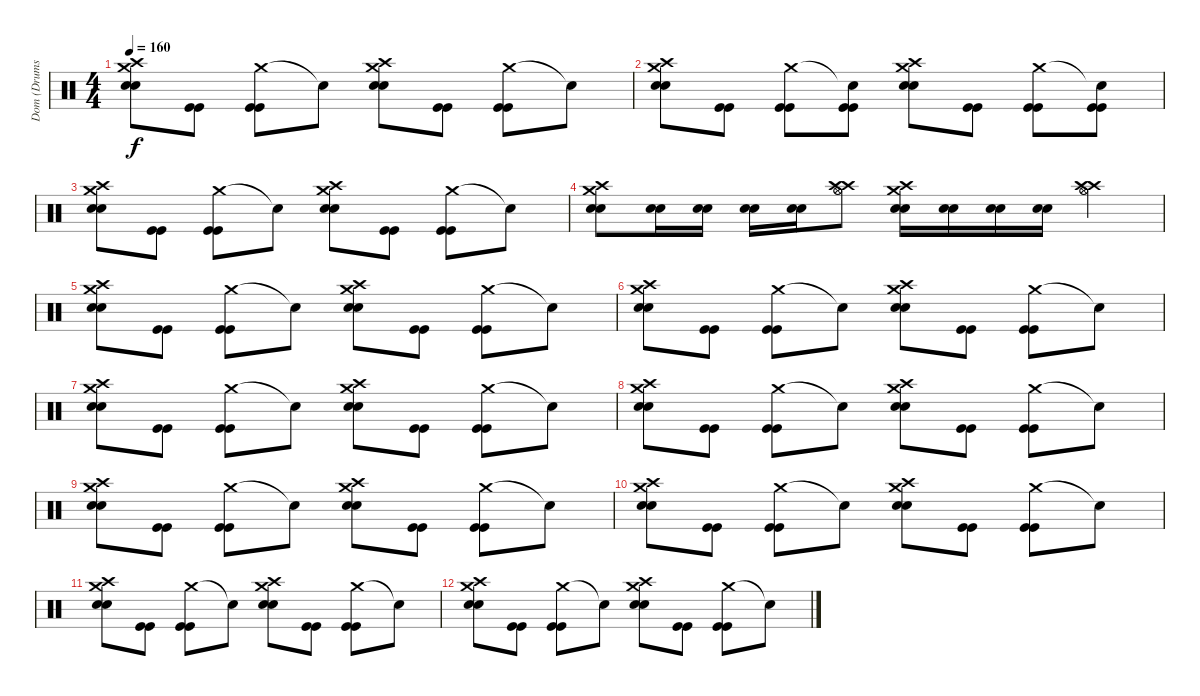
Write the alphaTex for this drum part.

\track ("Dom (Drums)" "Dom (Drums") {instrument percussion}
\staff {score}
\articulation defaults
\ts (4 4)
\tempo 160
\clef neutral
\ks c
("Crash medium (hit)" "Crash high (hit)" "Snare (hit) 2" "Snare (hit) 2").8{dy f} ("Kick (hit)" "Kick (hit)").8 ("Crash medium (hit)" "Kick (hit)" "Kick (hit)").8 "Snare (hit)"{t}.8 ("Crash medium (hit)" "Crash high (hit)" "Snare (hit) 2" "Snare (hit) 2").8 ("Kick (hit)" "Kick (hit)").8 ("Crash medium (hit)" "Kick (hit)" "Kick (hit)").8 "Snare (hit)"{t}.8 |
("Crash medium (hit)" "Crash high (hit)" "Snare (hit) 2" "Snare (hit) 2").8 ("Kick (hit)" "Kick (hit)").8 ("Crash medium (hit)" "Kick (hit)" "Kick (hit)").8 ("Snare (hit)"{t} "Kick (hit)" "Kick (hit)").8 ("Crash medium (hit)" "Crash high (hit)" "Snare (hit) 2" "Snare (hit) 2").8 ("Kick (hit)" "Kick (hit)").8 ("Crash medium (hit)" "Kick (hit)" "Kick (hit)").8 ("Snare (hit)"{t} "Kick (hit)" "Kick (hit)").8 |
("Crash medium (hit)" "Crash high (hit)" "Snare (hit) 2" "Snare (hit) 2").8 ("Kick (hit)" "Kick (hit)").8 ("Crash medium (hit)" "Kick (hit)" "Kick (hit)").8 "Snare (hit)"{t}.8 ("Crash medium (hit)" "Crash high (hit)" "Snare (hit) 2" "Snare (hit) 2").8 ("Kick (hit)" "Kick (hit)").8 ("Crash medium (hit)" "Kick (hit)" "Kick (hit)").8 "Snare (hit)"{t}.8 |
("Crash medium (hit)" "Crash high (hit)" "Snare (hit) 2" "Snare (hit) 2").8 ("Snare (hit) 2" "Snare (hit) 2").16 ("Snare (hit) 2" "Snare (hit) 2").16 ("Snare (hit) 2" "Snare (hit) 2").16 ("Snare (hit) 2" "Snare (hit) 2").16 ("Crash high (hit)" "Crash high (hit)" "Hi-Hat (open)" "Hi-Hat (open)").8 ("Crash medium (hit)" "Crash high (hit)" "Snare (hit) 2" "Snare (hit) 2").16 ("Snare (hit) 2" "Snare (hit) 2").16 ("Snare (hit) 2" "Snare (hit) 2").16 ("Snare (hit) 2" "Snare (hit) 2").16 ("Crash high (hit)" "Crash high (hit)" "Hi-Hat (open)" "Hi-Hat (open)").4 |
("Crash medium (hit)" "Crash high (hit)" "Snare (hit) 2" "Snare (hit) 2").8 ("Kick (hit)" "Kick (hit)").8 ("Crash medium (hit)" "Kick (hit)" "Kick (hit)").8 "Snare (hit)"{t}.8 ("Crash medium (hit)" "Crash high (hit)" "Snare (hit) 2" "Snare (hit) 2").8 ("Kick (hit)" "Kick (hit)").8 ("Crash medium (hit)" "Kick (hit)" "Kick (hit)").8 "Snare (hit)"{t}.8 |
("Crash medium (hit)" "Crash high (hit)" "Snare (hit) 2" "Snare (hit) 2").8 ("Kick (hit)" "Kick (hit)").8 ("Crash medium (hit)" "Kick (hit)" "Kick (hit)").8 "Snare (hit)"{t}.8 ("Crash medium (hit)" "Crash high (hit)" "Snare (hit) 2" "Snare (hit) 2").8 ("Kick (hit)" "Kick (hit)").8 ("Crash medium (hit)" "Kick (hit)" "Kick (hit)").8 "Snare (hit)"{t}.8 |
("Crash medium (hit)" "Crash high (hit)" "Snare (hit) 2" "Snare (hit) 2").8 ("Kick (hit)" "Kick (hit)").8 ("Crash medium (hit)" "Kick (hit)" "Kick (hit)").8 "Snare (hit)"{t}.8 ("Crash medium (hit)" "Crash high (hit)" "Snare (hit) 2" "Snare (hit) 2").8 ("Kick (hit)" "Kick (hit)").8 ("Crash medium (hit)" "Kick (hit)" "Kick (hit)").8 "Snare (hit)"{t}.8 |
("Crash medium (hit)" "Crash high (hit)" "Snare (hit) 2" "Snare (hit) 2").8 ("Kick (hit)" "Kick (hit)").8 ("Crash medium (hit)" "Kick (hit)" "Kick (hit)").8 "Snare (hit)"{t}.8 ("Crash medium (hit)" "Crash high (hit)" "Snare (hit) 2" "Snare (hit) 2").8 ("Kick (hit)" "Kick (hit)").8 ("Crash medium (hit)" "Kick (hit)" "Kick (hit)").8 "Snare (hit)"{t}.8 |
("Crash medium (hit)" "Crash high (hit)" "Snare (hit) 2" "Snare (hit) 2").8 ("Kick (hit)" "Kick (hit)").8 ("Crash medium (hit)" "Kick (hit)" "Kick (hit)").8 "Snare (hit)"{t}.8 ("Crash medium (hit)" "Crash high (hit)" "Snare (hit) 2" "Snare (hit) 2").8 ("Kick (hit)" "Kick (hit)").8 ("Crash medium (hit)" "Kick (hit)" "Kick (hit)").8 "Snare (hit)"{t}.8 |
("Crash medium (hit)" "Crash high (hit)" "Snare (hit) 2" "Snare (hit) 2").8 ("Kick (hit)" "Kick (hit)").8 ("Crash medium (hit)" "Kick (hit)" "Kick (hit)").8 "Snare (hit)"{t}.8 ("Crash medium (hit)" "Crash high (hit)" "Snare (hit) 2" "Snare (hit) 2").8 ("Kick (hit)" "Kick (hit)").8 ("Crash medium (hit)" "Kick (hit)" "Kick (hit)").8 "Snare (hit)"{t}.8 |
("Crash medium (hit)" "Crash high (hit)" "Snare (hit) 2" "Snare (hit) 2").8 ("Kick (hit)" "Kick (hit)").8 ("Crash medium (hit)" "Kick (hit)" "Kick (hit)").8 "Snare (hit)"{t}.8 ("Crash medium (hit)" "Crash high (hit)" "Snare (hit) 2" "Snare (hit) 2").8 ("Kick (hit)" "Kick (hit)").8 ("Crash medium (hit)" "Kick (hit)" "Kick (hit)").8 "Snare (hit)"{t}.8 |
("Crash medium (hit)" "Crash high (hit)" "Snare (hit) 2" "Snare (hit) 2").8 ("Kick (hit)" "Kick (hit)").8 ("Crash medium (hit)" "Kick (hit)" "Kick (hit)").8 "Snare (hit)"{t}.8 ("Crash medium (hit)" "Crash high (hit)" "Snare (hit) 2" "Snare (hit) 2").8 ("Kick (hit)" "Kick (hit)").8 ("Crash medium (hit)" "Kick (hit)" "Kick (hit)").8 "Snare (hit)"{t}.8
